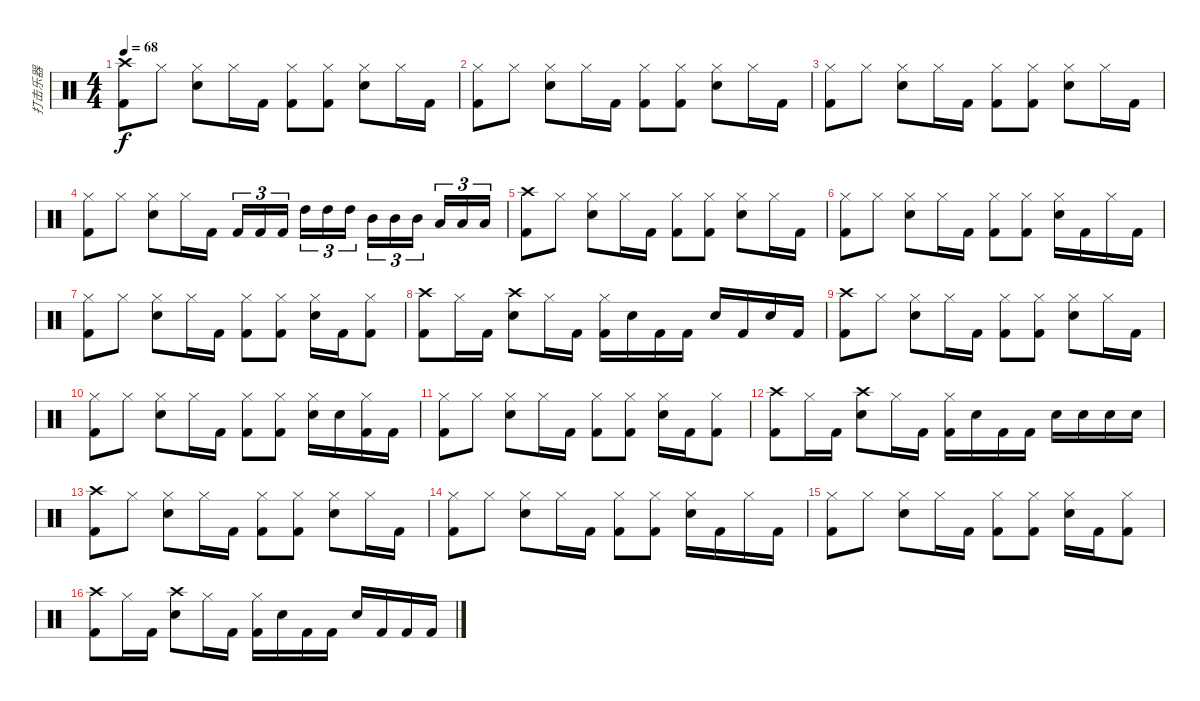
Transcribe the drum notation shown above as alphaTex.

\track ("打击乐器" "打击乐器") {instrument percussion}
\staff {score}
\articulation defaults
\ts (4 4)
\tempo 68
\clef neutral
\ks c
("Crash high (hit)" "Kick (hit) 2").8{dy f} "Hi-Hat (closed)".8 ("Hi-Hat (closed)" "Electric Snare (hit)").8 "Hi-Hat (closed)".16 "Kick (hit) 2".16 ("Hi-Hat (closed)" "Kick (hit) 2").8 ("Hi-Hat (closed)" "Kick (hit) 2").8 ("Hi-Hat (closed)" "Electric Snare (hit)").8 "Hi-Hat (closed)".16 "Kick (hit) 2".16 |
("Hi-Hat (closed)" "Kick (hit) 2").8 "Hi-Hat (closed)".8 ("Hi-Hat (closed)" "Electric Snare (hit)").8 "Hi-Hat (closed)".16 "Kick (hit) 2".16 ("Hi-Hat (closed)" "Kick (hit) 2").8 ("Hi-Hat (closed)" "Kick (hit) 2").8 ("Hi-Hat (closed)" "Electric Snare (hit)").8 "Hi-Hat (closed)".16 "Kick (hit) 2".16 |
("Hi-Hat (closed)" "Kick (hit) 2").8 "Hi-Hat (closed)".8 ("Hi-Hat (closed)" "Electric Snare (hit)").8 "Hi-Hat (closed)".16 "Kick (hit) 2".16 ("Hi-Hat (closed)" "Kick (hit) 2").8 ("Hi-Hat (closed)" "Kick (hit) 2").8 ("Hi-Hat (closed)" "Electric Snare (hit)").8 "Hi-Hat (closed)".16 "Kick (hit) 2".16 |
("Hi-Hat (closed)" "Kick (hit) 2").8 "Hi-Hat (closed)".8 ("Hi-Hat (closed)" "Electric Snare (hit)").8 "Hi-Hat (closed)".16 "Kick (hit) 2".16 "Kick (hit) 2".16{tu (3 2)} "Kick (hit) 2".16{tu (3 2)} "Kick (hit) 2".16{tu (3 2)} "High Tom (hit)".16{tu (3 2)} "High Tom (hit)".16{tu (3 2)} "High Tom (hit)".16{tu (3 2)} "Mid Tom (hit)".16{tu (3 2)} "Mid Tom (hit)".16{tu (3 2)} "Mid Tom (hit)".16{tu (3 2)} "Low Tom (hit)".16{tu (3 2)} "Low Tom (hit)".16{tu (3 2)} "Low Tom (hit)".16{tu (3 2)} |
("Crash high (hit)" "Kick (hit) 2").8 "Hi-Hat (closed)".8 ("Hi-Hat (closed)" "Electric Snare (hit)").8 "Hi-Hat (closed)".16 "Kick (hit) 2".16 ("Hi-Hat (closed)" "Kick (hit) 2").8 ("Hi-Hat (closed)" "Kick (hit) 2").8 ("Hi-Hat (closed)" "Electric Snare (hit)").8 "Hi-Hat (closed)".16 "Kick (hit) 2".16 |
("Hi-Hat (closed)" "Kick (hit) 2").8 "Hi-Hat (closed)".8 ("Hi-Hat (closed)" "Electric Snare (hit)").8 "Hi-Hat (closed)".16 "Kick (hit) 2".16 ("Hi-Hat (closed)" "Kick (hit) 2").8 ("Hi-Hat (closed)" "Kick (hit) 2").8 ("Hi-Hat (closed)" "Electric Snare (hit)").16 "Kick (hit) 2".16 "Hi-Hat (closed)".16 "Kick (hit) 2".16 |
("Hi-Hat (closed)" "Kick (hit) 2").8 "Hi-Hat (closed)".8 ("Hi-Hat (closed)" "Electric Snare (hit)").8 "Hi-Hat (closed)".16 "Kick (hit) 2".16 ("Hi-Hat (closed)" "Kick (hit) 2").8 ("Hi-Hat (closed)" "Kick (hit) 2").8 ("Hi-Hat (closed)" "Electric Snare (hit)").16 "Kick (hit) 2".16 ("Hi-Hat (closed)" "Kick (hit) 2").8 |
("Crash high (hit)" "Kick (hit) 2").8 "Hi-Hat (closed)".16 "Kick (hit) 2".16 ("Crash high (hit)" "Electric Snare (hit)").8 "Hi-Hat (closed)".16 "Kick (hit) 2".16 ("Hi-Hat (closed)" "Kick (hit) 2").16 "Electric Snare (hit)".16 "Kick (hit) 2".16 "Kick (hit) 2".16 "Electric Snare (hit)".16 "Kick (hit) 2".16 "Electric Snare (hit)".16 "Kick (hit) 2".16 |
("Crash high (hit)" "Kick (hit) 2").8 "Hi-Hat (closed)".8 ("Hi-Hat (closed)" "Electric Snare (hit)").8 "Hi-Hat (closed)".16 "Kick (hit) 2".16 ("Hi-Hat (closed)" "Kick (hit) 2").8 ("Hi-Hat (closed)" "Kick (hit) 2").8 ("Hi-Hat (closed)" "Electric Snare (hit)").8 "Hi-Hat (closed)".16 "Kick (hit) 2".16 |
("Hi-Hat (closed)" "Kick (hit) 2").8 "Hi-Hat (closed)".8 ("Hi-Hat (closed)" "Electric Snare (hit)").8 "Hi-Hat (closed)".16 "Kick (hit) 2".16 ("Hi-Hat (closed)" "Kick (hit) 2").8 ("Hi-Hat (closed)" "Kick (hit) 2").8 ("Hi-Hat (closed)" "Electric Snare (hit)").16 "Electric Snare (hit)".16 ("Hi-Hat (closed)" "Kick (hit) 2").16 "Kick (hit) 2".16 |
("Hi-Hat (closed)" "Kick (hit) 2").8 "Hi-Hat (closed)".8 ("Hi-Hat (closed)" "Electric Snare (hit)").8 "Hi-Hat (closed)".16 "Kick (hit) 2".16 ("Hi-Hat (closed)" "Kick (hit) 2").8 ("Hi-Hat (closed)" "Kick (hit) 2").8 ("Hi-Hat (closed)" "Electric Snare (hit)").16 "Kick (hit) 2".16 ("Hi-Hat (closed)" "Kick (hit) 2").8 |
("Crash high (hit)" "Kick (hit) 2").8 "Hi-Hat (closed)".16 "Kick (hit) 2".16 ("Crash high (hit)" "Electric Snare (hit)").8 "Hi-Hat (closed)".16 "Kick (hit) 2".16 ("Hi-Hat (closed)" "Kick (hit) 2").16 "Electric Snare (hit)".16 "Kick (hit) 2".16 "Kick (hit) 2".16 "Electric Snare (hit)".16 "Electric Snare (hit)".16 "Electric Snare (hit)".16 "Electric Snare (hit)".16 |
("Crash high (hit)" "Kick (hit) 2").8 "Hi-Hat (closed)".8 ("Hi-Hat (closed)" "Electric Snare (hit)").8 "Hi-Hat (closed)".16 "Kick (hit) 2".16 ("Hi-Hat (closed)" "Kick (hit) 2").8 ("Hi-Hat (closed)" "Kick (hit) 2").8 ("Hi-Hat (closed)" "Electric Snare (hit)").8 "Hi-Hat (closed)".16 "Kick (hit) 2".16 |
("Hi-Hat (closed)" "Kick (hit) 2").8 "Hi-Hat (closed)".8 ("Hi-Hat (closed)" "Electric Snare (hit)").8 "Hi-Hat (closed)".16 "Kick (hit) 2".16 ("Hi-Hat (closed)" "Kick (hit) 2").8 ("Hi-Hat (closed)" "Kick (hit) 2").8 ("Hi-Hat (closed)" "Electric Snare (hit)").16 "Kick (hit) 2".16 "Hi-Hat (closed)".16 "Kick (hit) 2".16 |
("Hi-Hat (closed)" "Kick (hit) 2").8 "Hi-Hat (closed)".8 ("Hi-Hat (closed)" "Electric Snare (hit)").8 "Hi-Hat (closed)".16 "Kick (hit) 2".16 ("Hi-Hat (closed)" "Kick (hit) 2").8 ("Hi-Hat (closed)" "Kick (hit) 2").8 ("Hi-Hat (closed)" "Electric Snare (hit)").16 "Kick (hit) 2".16 ("Hi-Hat (closed)" "Kick (hit) 2").8 |
("Crash high (hit)" "Kick (hit) 2").8 "Hi-Hat (closed)".16 "Kick (hit) 2".16 ("Crash high (hit)" "Electric Snare (hit)").8 "Hi-Hat (closed)".16 "Kick (hit) 2".16 ("Hi-Hat (closed)" "Kick (hit) 2").16 "Electric Snare (hit)".16 "Kick (hit) 2".16 "Kick (hit) 2".16 "Electric Snare (hit)".16 "Kick (hit) 2".16 "Kick (hit) 2".16 "Kick (hit) 2".16
